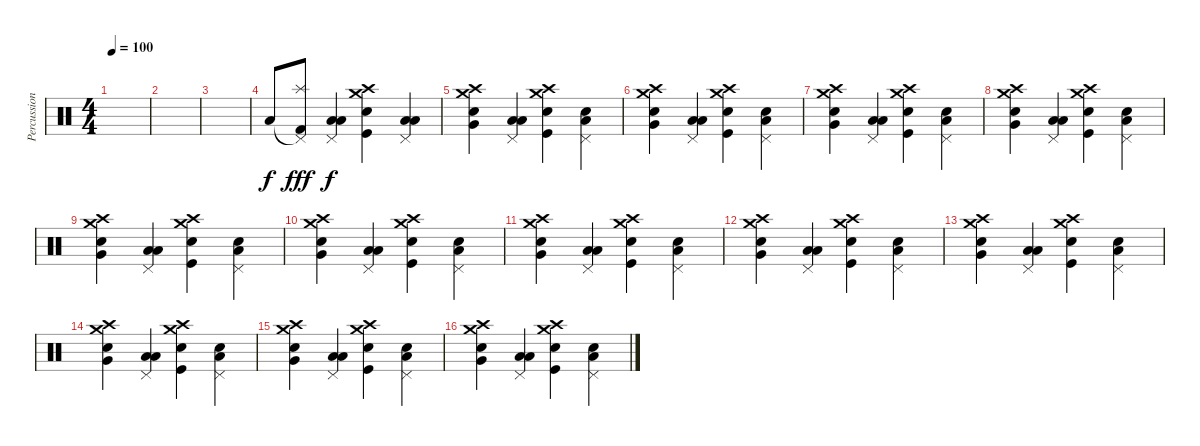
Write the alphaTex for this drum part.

\track ("Percussion" "Percussion") {instrument percussion}
\staff {score}
\articulation defaults
\ts (4 4)
\tempo 100
\clef neutral
\ks c
|
|
|
"Low Tom (hit)".8 ("Pedal Hi-Hat (hit)"{t} "Splash (hit)" "Kick (hit) 2").8{dy fff} ("Pedal Hi-Hat (hit)" "Low Tom (hit)" "Low Floor Tom (hit)").4{dy f} ("Crash medium (hit)" "Crash high (hit)" "Electric Snare (hit)" "Kick (hit)").4 ("Pedal Hi-Hat (hit)" "Low Tom (hit)" "Low Floor Tom (hit)").4 |
("Crash medium (hit)" "Crash high (hit)" "Electric Snare (hit)" "Very Low Tom (hit)").4 ("Pedal Hi-Hat (hit)" "Low Tom (hit)" "Low Floor Tom (hit)").4 ("Crash medium (hit)" "Crash high (hit)" "Electric Snare (hit)" "Kick (hit)").4 ("Pedal Hi-Hat (hit)" "Low Tom (hit)" "Electric Snare (hit)").4 |
("Crash medium (hit)" "Crash high (hit)" "Electric Snare (hit)" "Very Low Tom (hit)").4 ("Pedal Hi-Hat (hit)" "Low Tom (hit)" "Low Floor Tom (hit)").4 ("Crash medium (hit)" "Crash high (hit)" "Electric Snare (hit)" "Kick (hit)").4 ("Pedal Hi-Hat (hit)" "Low Tom (hit)" "Electric Snare (hit)").4 |
("Crash medium (hit)" "Crash high (hit)" "Electric Snare (hit)" "Very Low Tom (hit)").4 ("Pedal Hi-Hat (hit)" "Low Tom (hit)" "Low Floor Tom (hit)").4 ("Crash medium (hit)" "Crash high (hit)" "Electric Snare (hit)" "Kick (hit)").4 ("Pedal Hi-Hat (hit)" "Low Tom (hit)" "Electric Snare (hit)").4 |
("Crash medium (hit)" "Crash high (hit)" "Electric Snare (hit)" "Very Low Tom (hit)").4 ("Pedal Hi-Hat (hit)" "Low Tom (hit)" "Low Floor Tom (hit)").4 ("Crash medium (hit)" "Crash high (hit)" "Electric Snare (hit)" "Kick (hit)").4 ("Pedal Hi-Hat (hit)" "Low Tom (hit)" "Electric Snare (hit)").4 |
("Crash medium (hit)" "Crash high (hit)" "Electric Snare (hit)" "Very Low Tom (hit)").4 ("Pedal Hi-Hat (hit)" "Low Tom (hit)" "Low Floor Tom (hit)").4 ("Crash medium (hit)" "Crash high (hit)" "Electric Snare (hit)" "Kick (hit)").4 ("Pedal Hi-Hat (hit)" "Low Tom (hit)" "Electric Snare (hit)").4 |
("Crash medium (hit)" "Crash high (hit)" "Electric Snare (hit)" "Very Low Tom (hit)").4 ("Pedal Hi-Hat (hit)" "Low Tom (hit)" "Low Floor Tom (hit)").4 ("Crash medium (hit)" "Crash high (hit)" "Electric Snare (hit)" "Kick (hit)").4 ("Pedal Hi-Hat (hit)" "Low Tom (hit)" "Electric Snare (hit)").4 |
("Crash medium (hit)" "Crash high (hit)" "Electric Snare (hit)" "Very Low Tom (hit)").4 ("Pedal Hi-Hat (hit)" "Low Tom (hit)" "Low Floor Tom (hit)").4 ("Crash medium (hit)" "Crash high (hit)" "Electric Snare (hit)" "Kick (hit)").4 ("Pedal Hi-Hat (hit)" "Low Tom (hit)" "Electric Snare (hit)").4 |
("Crash medium (hit)" "Crash high (hit)" "Electric Snare (hit)" "Very Low Tom (hit)").4 ("Pedal Hi-Hat (hit)" "Low Tom (hit)" "Low Floor Tom (hit)").4 ("Crash medium (hit)" "Crash high (hit)" "Electric Snare (hit)" "Kick (hit)").4 ("Pedal Hi-Hat (hit)" "Low Tom (hit)" "Electric Snare (hit)").4 |
("Crash medium (hit)" "Crash high (hit)" "Electric Snare (hit)" "Very Low Tom (hit)").4 ("Pedal Hi-Hat (hit)" "Low Tom (hit)" "Low Floor Tom (hit)").4 ("Crash medium (hit)" "Crash high (hit)" "Electric Snare (hit)" "Kick (hit)").4 ("Pedal Hi-Hat (hit)" "Low Tom (hit)" "Electric Snare (hit)").4 |
("Crash medium (hit)" "Crash high (hit)" "Electric Snare (hit)" "Very Low Tom (hit)").4 ("Pedal Hi-Hat (hit)" "Low Tom (hit)" "Low Floor Tom (hit)").4 ("Crash medium (hit)" "Crash high (hit)" "Electric Snare (hit)" "Kick (hit)").4 ("Pedal Hi-Hat (hit)" "Low Tom (hit)" "Electric Snare (hit)").4 |
("Crash medium (hit)" "Crash high (hit)" "Electric Snare (hit)" "Very Low Tom (hit)").4 ("Pedal Hi-Hat (hit)" "Low Tom (hit)" "Low Floor Tom (hit)").4 ("Crash medium (hit)" "Crash high (hit)" "Electric Snare (hit)" "Kick (hit)").4 ("Pedal Hi-Hat (hit)" "Low Tom (hit)" "Electric Snare (hit)").4 |
("Crash medium (hit)" "Crash high (hit)" "Electric Snare (hit)" "Very Low Tom (hit)").4 ("Pedal Hi-Hat (hit)" "Low Tom (hit)" "Low Floor Tom (hit)").4 ("Crash medium (hit)" "Crash high (hit)" "Electric Snare (hit)" "Kick (hit)").4 ("Pedal Hi-Hat (hit)" "Low Tom (hit)" "Electric Snare (hit)").4
